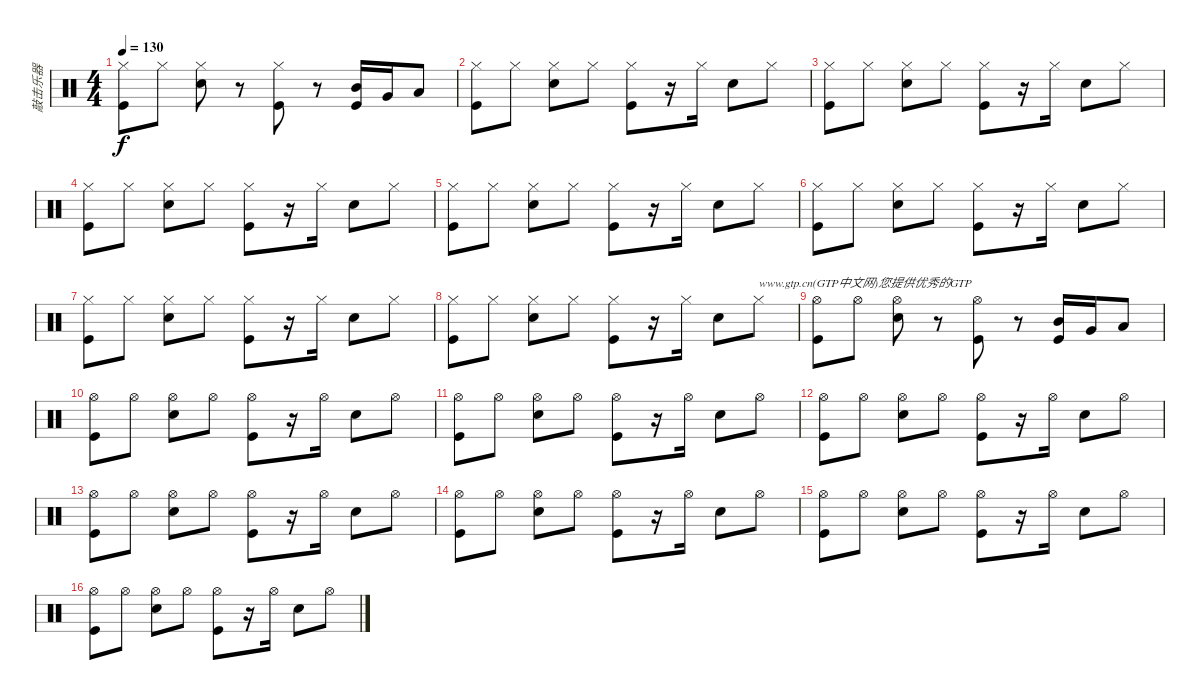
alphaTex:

\track ("敲击乐器" "敲击乐器") {instrument percussion}
\staff {score}
\articulation defaults
\ts (4 4)
\tempo 130
\clef neutral
\ks c
("Hi-Hat (closed)" "Kick (hit)").8{dy f} "Hi-Hat (closed)".8 ("Hi-Hat (closed)" "Snare (hit) 2").8 r.8 ("Hi-Hat (closed)" "Kick (hit)").8 r.8 ("Mid Tom (hit)" "Kick (hit)").16 "Very Low Tom (hit)".16 "Low Floor Tom (hit)".8 |
("Hi-Hat (closed)" "Kick (hit)").8 "Hi-Hat (closed)".8 ("Hi-Hat (closed)" "Snare (hit) 2").8 "Hi-Hat (closed)".8 ("Hi-Hat (closed)" "Kick (hit)").8 r.16 "Hi-Hat (closed)".16 "Snare (hit) 2".8 "Hi-Hat (closed)".8 |
("Hi-Hat (closed)" "Kick (hit)").8 "Hi-Hat (closed)".8 ("Hi-Hat (closed)" "Snare (hit) 2").8 "Hi-Hat (closed)".8 ("Hi-Hat (closed)" "Kick (hit)").8 r.16 "Hi-Hat (closed)".16 "Snare (hit) 2".8 "Hi-Hat (closed)".8 |
("Hi-Hat (closed)" "Kick (hit)").8 "Hi-Hat (closed)".8 ("Hi-Hat (closed)" "Snare (hit) 2").8 "Hi-Hat (closed)".8 ("Hi-Hat (closed)" "Kick (hit)").8 r.16 "Hi-Hat (closed)".16 "Snare (hit) 2".8 "Hi-Hat (closed)".8 |
("Hi-Hat (closed)" "Kick (hit)").8 "Hi-Hat (closed)".8 ("Hi-Hat (closed)" "Snare (hit) 2").8 "Hi-Hat (closed)".8 ("Hi-Hat (closed)" "Kick (hit)").8 r.16 "Hi-Hat (closed)".16 "Snare (hit) 2".8 "Hi-Hat (closed)".8 |
("Hi-Hat (closed)" "Kick (hit)").8 "Hi-Hat (closed)".8 ("Hi-Hat (closed)" "Snare (hit) 2").8 "Hi-Hat (closed)".8 ("Hi-Hat (closed)" "Kick (hit)").8 r.16 "Hi-Hat (closed)".16 "Snare (hit) 2".8 "Hi-Hat (closed)".8 |
("Hi-Hat (closed)" "Kick (hit)").8 "Hi-Hat (closed)".8 ("Hi-Hat (closed)" "Snare (hit) 2").8 "Hi-Hat (closed)".8 ("Hi-Hat (closed)" "Kick (hit)").8 r.16 "Hi-Hat (closed)".16 "Snare (hit) 2".8 "Hi-Hat (closed)".8 |
("Hi-Hat (closed)" "Kick (hit)").8 "Hi-Hat (closed)".8 ("Hi-Hat (closed)" "Snare (hit) 2").8 "Hi-Hat (closed)".8 ("Hi-Hat (closed)" "Kick (hit)").8 r.16 "Hi-Hat (closed)".16 "Snare (hit) 2".8 "Hi-Hat (closed)".8{txt "www.gtp.cn(GTP中文网)您提供优秀的GTP"} |
("Hi-Hat (open)" "Kick (hit)").8 "Hi-Hat (open)".8 ("Hi-Hat (open)" "Snare (hit) 2").8 r.8 ("Hi-Hat (open)" "Kick (hit)").8 r.8 ("Mid Tom (hit)" "Kick (hit)").16 "Very Low Tom (hit)".16 "Low Floor Tom (hit)".8 |
("Hi-Hat (open)" "Kick (hit)").8 "Hi-Hat (open)".8 ("Hi-Hat (open)" "Snare (hit) 2").8 "Hi-Hat (open)".8 ("Hi-Hat (open)" "Kick (hit)").8 r.16 "Hi-Hat (open)".16 "Snare (hit) 2".8 "Hi-Hat (open)".8 |
("Hi-Hat (open)" "Kick (hit)").8 "Hi-Hat (open)".8 ("Hi-Hat (open)" "Snare (hit) 2").8 "Hi-Hat (open)".8 ("Hi-Hat (open)" "Kick (hit)").8 r.16 "Hi-Hat (open)".16 "Snare (hit) 2".8 "Hi-Hat (open)".8 |
("Hi-Hat (open)" "Kick (hit)").8 "Hi-Hat (open)".8 ("Hi-Hat (open)" "Snare (hit) 2").8 "Hi-Hat (open)".8 ("Hi-Hat (open)" "Kick (hit)").8 r.16 "Hi-Hat (open)".16 "Snare (hit) 2".8 "Hi-Hat (open)".8 |
("Hi-Hat (open)" "Kick (hit)").8 "Hi-Hat (open)".8 ("Hi-Hat (open)" "Snare (hit) 2").8 "Hi-Hat (open)".8 ("Hi-Hat (open)" "Kick (hit)").8 r.16 "Hi-Hat (open)".16 "Snare (hit) 2".8 "Hi-Hat (open)".8 |
("Hi-Hat (open)" "Kick (hit)").8 "Hi-Hat (open)".8 ("Hi-Hat (open)" "Snare (hit) 2").8 "Hi-Hat (open)".8 ("Hi-Hat (open)" "Kick (hit)").8 r.16 "Hi-Hat (open)".16 "Snare (hit) 2".8 "Hi-Hat (open)".8 |
("Hi-Hat (open)" "Kick (hit)").8 "Hi-Hat (open)".8 ("Hi-Hat (open)" "Snare (hit) 2").8 "Hi-Hat (open)".8 ("Hi-Hat (open)" "Kick (hit)").8 r.16 "Hi-Hat (open)".16 "Snare (hit) 2".8 "Hi-Hat (open)".8 |
("Hi-Hat (open)" "Kick (hit)").8 "Hi-Hat (open)".8 ("Hi-Hat (open)" "Snare (hit) 2").8 "Hi-Hat (open)".8 ("Hi-Hat (open)" "Kick (hit)").8 r.16 "Hi-Hat (open)".16 "Snare (hit) 2".8 "Hi-Hat (open)".8
